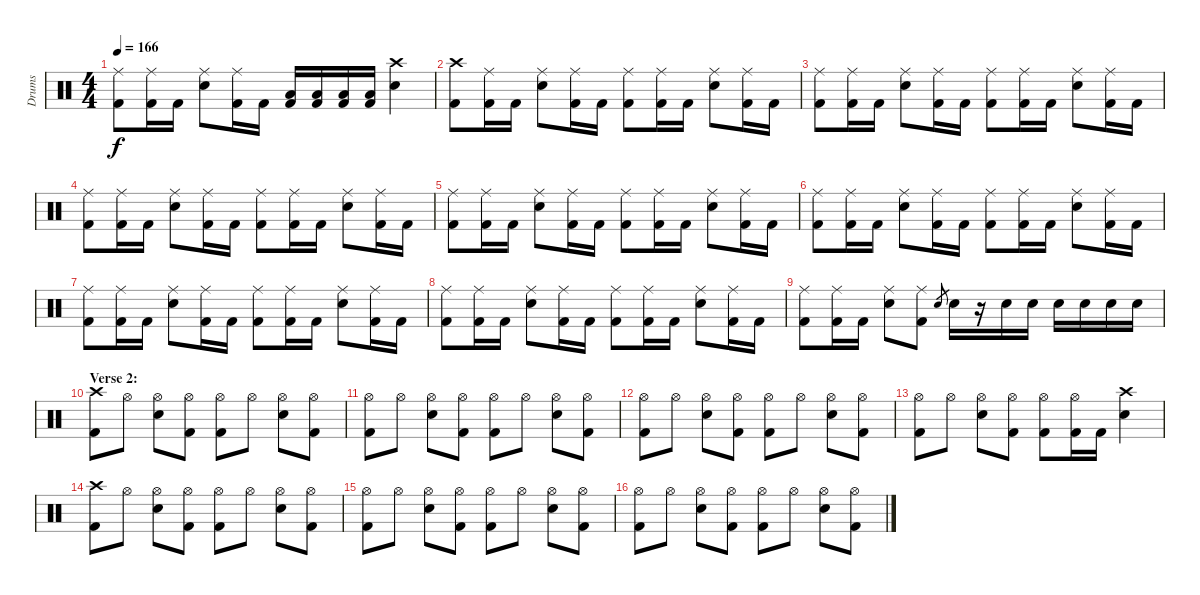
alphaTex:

\track ("Drums" "Drums") {instrument percussion}
\staff {score}
\articulation defaults
\ts (4 4)
\tempo 166
\clef neutral
\ks c
("Ride (middle)" "Kick (hit) 2").8{dy f} ("Ride (middle)" "Kick (hit) 2").16 "Kick (hit) 2".16 ("Ride (middle)" "Electric Snare (hit)").8 ("Ride (middle)" "Kick (hit) 2").16 "Kick (hit) 2".16 ("Low Floor Tom (hit)" "Kick (hit) 2").16 ("Low Floor Tom (hit)" "Kick (hit) 2").16 ("Low Floor Tom (hit)" "Kick (hit) 2").16 ("Low Floor Tom (hit)" "Kick (hit) 2").16 ("Crash high (hit)" "Electric Snare (hit)").4 |
("Crash high (hit)" "Kick (hit) 2").8 ("Ride (middle)" "Kick (hit) 2").16 "Kick (hit) 2".16 ("Ride (middle)" "Electric Snare (hit)").8 ("Ride (middle)" "Kick (hit) 2").16 "Kick (hit) 2".16 ("Ride (middle)" "Kick (hit) 2").8 ("Ride (middle)" "Kick (hit) 2").16 "Kick (hit) 2".16 ("Ride (middle)" "Electric Snare (hit)").8 ("Ride (middle)" "Kick (hit) 2").16 "Kick (hit) 2".16 |
("Ride (middle)" "Kick (hit) 2").8 ("Ride (middle)" "Kick (hit) 2").16 "Kick (hit) 2".16 ("Ride (middle)" "Electric Snare (hit)").8 ("Ride (middle)" "Kick (hit) 2").16 "Kick (hit) 2".16 ("Ride (middle)" "Kick (hit) 2").8 ("Ride (middle)" "Kick (hit) 2").16 "Kick (hit) 2".16 ("Ride (middle)" "Electric Snare (hit)").8 ("Ride (middle)" "Kick (hit) 2").16 "Kick (hit) 2".16 |
("Ride (middle)" "Kick (hit) 2").8 ("Ride (middle)" "Kick (hit) 2").16 "Kick (hit) 2".16 ("Ride (middle)" "Electric Snare (hit)").8 ("Ride (middle)" "Kick (hit) 2").16 "Kick (hit) 2".16 ("Ride (middle)" "Kick (hit) 2").8 ("Ride (middle)" "Kick (hit) 2").16 "Kick (hit) 2".16 ("Ride (middle)" "Electric Snare (hit)").8 ("Ride (middle)" "Kick (hit) 2").16 "Kick (hit) 2".16 |
("Ride (middle)" "Kick (hit) 2").8 ("Ride (middle)" "Kick (hit) 2").16 "Kick (hit) 2".16 ("Ride (middle)" "Electric Snare (hit)").8 ("Ride (middle)" "Kick (hit) 2").16 "Kick (hit) 2".16 ("Ride (middle)" "Kick (hit) 2").8 ("Ride (middle)" "Kick (hit) 2").16 "Kick (hit) 2".16 ("Ride (middle)" "Electric Snare (hit)").8 ("Ride (middle)" "Kick (hit) 2").16 "Kick (hit) 2".16 |
("Ride (middle)" "Kick (hit) 2").8 ("Ride (middle)" "Kick (hit) 2").16 "Kick (hit) 2".16 ("Ride (middle)" "Electric Snare (hit)").8 ("Ride (middle)" "Kick (hit) 2").16 "Kick (hit) 2".16 ("Ride (middle)" "Kick (hit) 2").8 ("Ride (middle)" "Kick (hit) 2").16 "Kick (hit) 2".16 ("Ride (middle)" "Electric Snare (hit)").8 ("Ride (middle)" "Kick (hit) 2").16 "Kick (hit) 2".16 |
("Ride (middle)" "Kick (hit) 2").8 ("Ride (middle)" "Kick (hit) 2").16 "Kick (hit) 2".16 ("Ride (middle)" "Electric Snare (hit)").8 ("Ride (middle)" "Kick (hit) 2").16 "Kick (hit) 2".16 ("Ride (middle)" "Kick (hit) 2").8 ("Ride (middle)" "Kick (hit) 2").16 "Kick (hit) 2".16 ("Ride (middle)" "Electric Snare (hit)").8 ("Ride (middle)" "Kick (hit) 2").16 "Kick (hit) 2".16 |
("Ride (middle)" "Kick (hit) 2").8 ("Ride (middle)" "Kick (hit) 2").16 "Kick (hit) 2".16 ("Ride (middle)" "Electric Snare (hit)").8 ("Ride (middle)" "Kick (hit) 2").16 "Kick (hit) 2".16 ("Ride (middle)" "Kick (hit) 2").8 ("Ride (middle)" "Kick (hit) 2").16 "Kick (hit) 2".16 ("Ride (middle)" "Electric Snare (hit)").8 ("Ride (middle)" "Kick (hit) 2").16 "Kick (hit) 2".16 |
("Ride (middle)" "Kick (hit) 2").8 ("Ride (middle)" "Kick (hit) 2").16 "Kick (hit) 2".16 ("Ride (middle)" "Electric Snare (hit)").8 ("Ride (middle)" "Kick (hit) 2").8 "Electric Snare (hit)".8{gr} "Electric Snare (hit)".16 r.16 "Electric Snare (hit)".16 "Electric Snare (hit)".16 "Electric Snare (hit)".16 "Electric Snare (hit)".16 "Electric Snare (hit)".16 "Electric Snare (hit)".16 |
\section ("" "Verse 2:")
("Crash high (hit)" "Kick (hit) 2").8 "Hi-Hat (open)".8 ("Hi-Hat (open)" "Electric Snare (hit)").8 ("Hi-Hat (open)" "Kick (hit) 2").8 ("Hi-Hat (open)" "Kick (hit) 2").8 "Hi-Hat (open)".8 ("Hi-Hat (open)" "Electric Snare (hit)").8 ("Hi-Hat (open)" "Kick (hit) 2").8 |
("Hi-Hat (open)" "Kick (hit) 2").8 "Hi-Hat (open)".8 ("Hi-Hat (open)" "Electric Snare (hit)").8 ("Hi-Hat (open)" "Kick (hit) 2").8 ("Hi-Hat (open)" "Kick (hit) 2").8 "Hi-Hat (open)".8 ("Hi-Hat (open)" "Electric Snare (hit)").8 ("Hi-Hat (open)" "Kick (hit) 2").8 |
("Hi-Hat (open)" "Kick (hit) 2").8 "Hi-Hat (open)".8 ("Hi-Hat (open)" "Electric Snare (hit)").8 ("Hi-Hat (open)" "Kick (hit) 2").8 ("Hi-Hat (open)" "Kick (hit) 2").8 "Hi-Hat (open)".8 ("Hi-Hat (open)" "Electric Snare (hit)").8 ("Hi-Hat (open)" "Kick (hit) 2").8 |
("Hi-Hat (open)" "Kick (hit) 2").8 "Hi-Hat (open)".8 ("Hi-Hat (open)" "Electric Snare (hit)").8 ("Hi-Hat (open)" "Kick (hit) 2").8 ("Hi-Hat (open)" "Kick (hit) 2").8 ("Hi-Hat (open)" "Kick (hit) 2").16 "Kick (hit) 2".16 ("Crash high (hit)" "Electric Snare (hit)").4 |
("Crash high (hit)" "Kick (hit) 2").8 "Hi-Hat (open)".8 ("Hi-Hat (open)" "Electric Snare (hit)").8 ("Hi-Hat (open)" "Kick (hit) 2").8 ("Hi-Hat (open)" "Kick (hit) 2").8 "Hi-Hat (open)".8 ("Hi-Hat (open)" "Electric Snare (hit)").8 ("Hi-Hat (open)" "Kick (hit) 2").8 |
("Hi-Hat (open)" "Kick (hit) 2").8 "Hi-Hat (open)".8 ("Hi-Hat (open)" "Electric Snare (hit)").8 ("Hi-Hat (open)" "Kick (hit) 2").8 ("Hi-Hat (open)" "Kick (hit) 2").8 "Hi-Hat (open)".8 ("Hi-Hat (open)" "Electric Snare (hit)").8 ("Hi-Hat (open)" "Kick (hit) 2").8 |
("Hi-Hat (open)" "Kick (hit) 2").8 "Hi-Hat (open)".8 ("Hi-Hat (open)" "Electric Snare (hit)").8 ("Hi-Hat (open)" "Kick (hit) 2").8 ("Hi-Hat (open)" "Kick (hit) 2").8 "Hi-Hat (open)".8 ("Hi-Hat (open)" "Electric Snare (hit)").8 ("Hi-Hat (open)" "Kick (hit) 2").8
